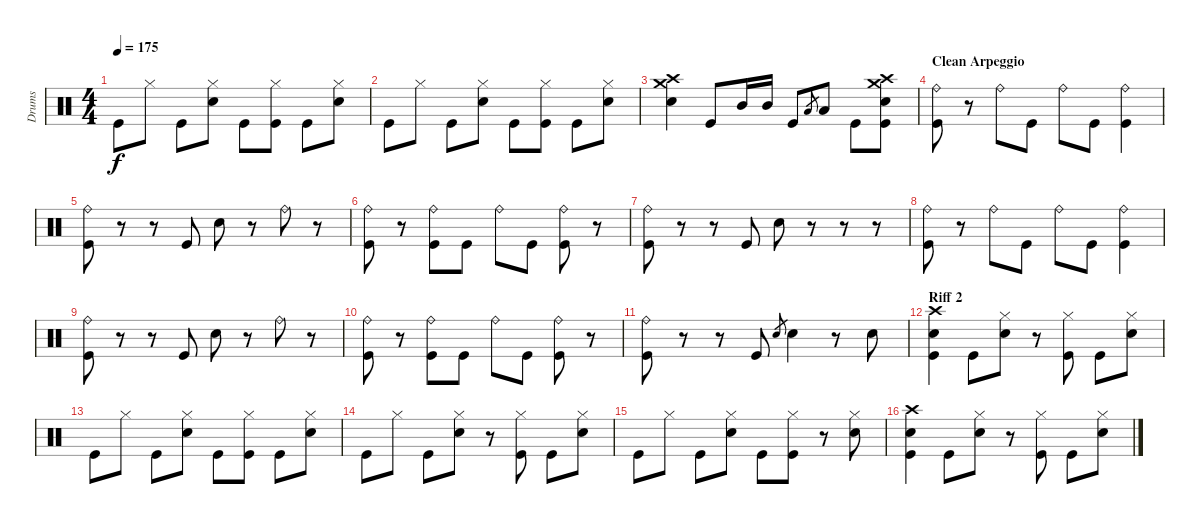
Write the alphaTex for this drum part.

\track ("Drums" "Drums") {instrument percussion}
\staff {score}
\articulation defaults
\ts (4 4)
\tempo 175
\clef neutral
\ks c "Kick (hit)".8{dy f} "Hi-Hat (closed)".8 "Kick (hit)".8
("Hi-Hat (closed)" "Electric Snare (hit)").8 "Kick (hit)".8 ("Hi-Hat (closed)" "Kick (hit)").8 "Kick (hit)".8 ("Hi-Hat (closed)" "Electric Snare (hit)").8 |
"Kick (hit)".8 "Hi-Hat (closed)".8 "Kick (hit)".8 ("Hi-Hat (closed)" "Electric Snare (hit)").8 "Kick (hit)".8 ("Hi-Hat (closed)" "Kick (hit)").8 "Kick (hit)".8 ("Hi-Hat (closed)" "Electric Snare (hit)").8 |
("Crash medium (hit)" "Crash high (hit)" "Electric Snare (hit)").4 "Kick (hit)".8 "Mid Tom (hit)".16 "Mid Tom (hit)".16 "Kick (hit)".8 "Low Tom (hit)".8{gr} "Low Tom (hit)".8 "Kick (hit)".8 ("Crash high (hit)" "Crash medium (hit)" "Electric Snare (hit)" "Kick (hit)").8 |
\section ("" "Clean Arpeggio")
("Ride (bell)" "Kick (hit)").8 r.8 "Ride (bell)".8 "Kick (hit)".8 "Ride (bell)".8 "Kick (hit)".8 ("Ride (bell)" "Kick (hit)").4 |
("Ride (bell)" "Kick (hit)").8 r.8 r.8 "Kick (hit)".8 "Electric Snare (hit)".8 r.8 "Ride (bell)".8 r.8 |
("Ride (bell)" "Kick (hit)").8 r.8 ("Ride (bell)" "Kick (hit)").8 "Kick (hit)".8 "Ride (bell)".8 "Kick (hit)".8 ("Ride (bell)" "Kick (hit)").8 r.8 |
("Ride (bell)" "Kick (hit)").8 r.8 r.8 "Kick (hit)".8 "Electric Snare (hit)".8 r.8 r.8 r.8 |
("Ride (bell)" "Kick (hit)").8 r.8 "Ride (bell)".8 "Kick (hit)".8 "Ride (bell)".8 "Kick (hit)".8 ("Ride (bell)" "Kick (hit)").4 |
("Ride (bell)" "Kick (hit)").8 r.8 r.8 "Kick (hit)".8 "Electric Snare (hit)".8 r.8 "Ride (bell)".8 r.8 |
("Ride (bell)" "Kick (hit)").8 r.8 ("Ride (bell)" "Kick (hit)").8 "Kick (hit)".8 "Ride (bell)".8 "Kick (hit)".8 ("Ride (bell)" "Kick (hit)").8 r.8 |
("Ride (bell)" "Kick (hit)").8 r.8 r.8 "Kick (hit)".8 "Electric Snare (hit)".8{gr} "Electric Snare (hit)".4 r.8 "Electric Snare (hit)".8 |
\section ("" "Riff 2")
("Crash high (hit)" "Electric Snare (hit)" "Kick (hit)").4 "Kick (hit)".8 ("Hi-Hat (closed)" "Electric Snare (hit)").8 r.8 ("Hi-Hat (closed)" "Kick (hit)").8 "Kick (hit)".8 ("Hi-Hat (closed)" "Electric Snare (hit)").8 |
"Kick (hit)".8 "Hi-Hat (closed)".8 "Kick (hit)".8 ("Hi-Hat (closed)" "Electric Snare (hit)").8 "Kick (hit)".8 ("Hi-Hat (closed)" "Kick (hit)").8 "Kick (hit)".8 ("Hi-Hat (closed)" "Electric Snare (hit)").8 |
"Kick (hit)".8 "Hi-Hat (closed)".8 "Kick (hit)".8 ("Hi-Hat (closed)" "Electric Snare (hit)").8 r.8 ("Hi-Hat (closed)" "Kick (hit)").8 "Kick (hit)".8 ("Hi-Hat (closed)" "Electric Snare (hit)").8 |
"Kick (hit)".8 "Hi-Hat (closed)".8 "Kick (hit)".8 ("Hi-Hat (closed)" "Electric Snare (hit)").8 "Kick (hit)".8 ("Hi-Hat (closed)" "Kick (hit)").8 r.8 ("Hi-Hat (closed)" "Electric Snare (hit)").8 |
("Crash high (hit)" "Electric Snare (hit)" "Kick (hit)").4 "Kick (hit)".8 ("Hi-Hat (closed)" "Electric Snare (hit)").8 r.8 ("Hi-Hat (closed)" "Kick (hit)").8 "Kick (hit)".8 ("Hi-Hat (closed)" "Electric Snare (hit)").8
